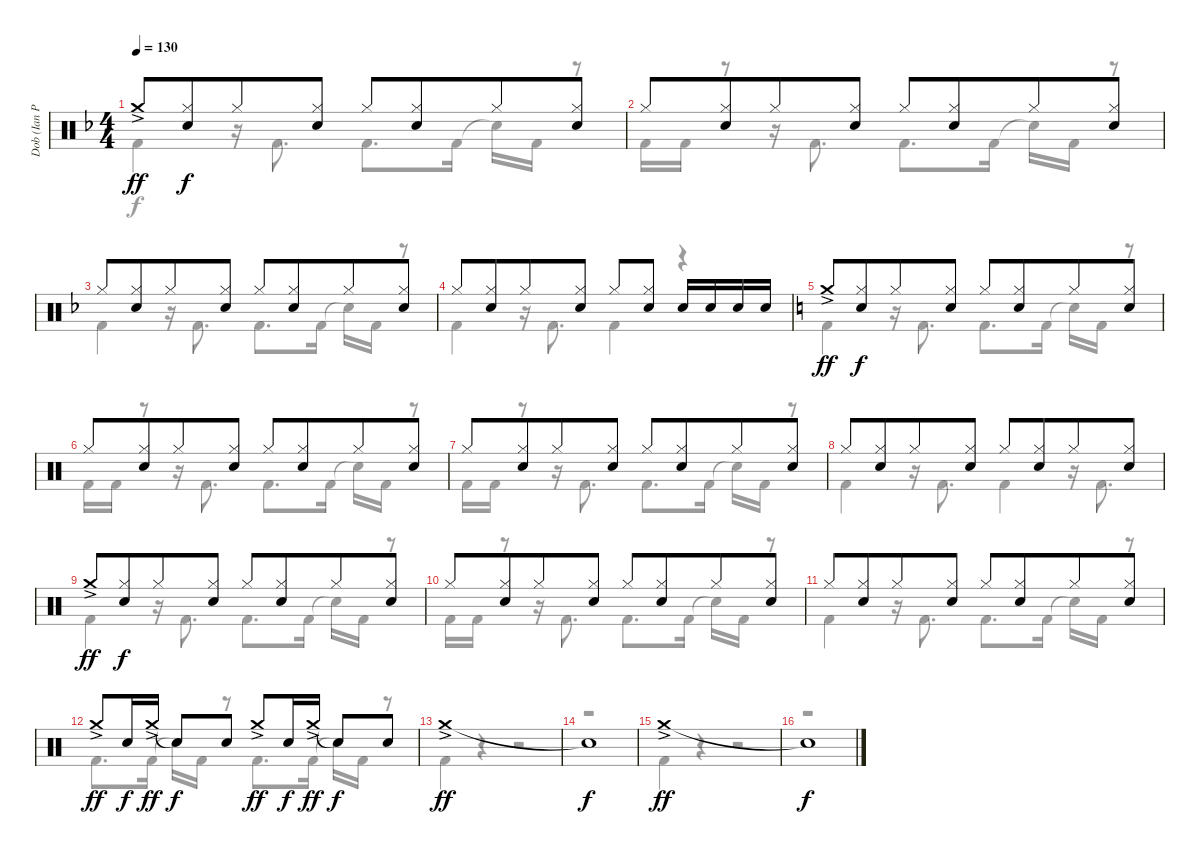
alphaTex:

\track ("Dob (Ian Paice)" "Dob (Ian P") {instrument percussion}
\staff {score}
\articulation defaults
\voice
\ts (4 4)
\tempo 130
\clef neutral
\ks f "Crash medium (hit)"{ac}.8{dy ff}
("Hi-Hat (closed)" "Electric Snare (hit)").8{dy f beam merge} "Hi-Hat (closed)".8 ("Hi-Hat (closed)" "Electric Snare (hit)").8 "Hi-Hat (closed)".8 ("Hi-Hat (closed)" "Electric Snare (hit)").8{beam merge} "Hi-Hat (closed)".8 ("Hi-Hat (closed)" "Electric Snare (hit)").8 |
"Hi-Hat (closed)".8 ("Hi-Hat (closed)" "Electric Snare (hit)").8{beam merge} "Hi-Hat (closed)".8 ("Hi-Hat (closed)" "Electric Snare (hit)").8 "Hi-Hat (closed)".8 ("Hi-Hat (closed)" "Electric Snare (hit)").8{beam merge} "Hi-Hat (closed)".8 ("Hi-Hat (closed)" "Electric Snare (hit)").8 |
"Hi-Hat (closed)".8 ("Hi-Hat (closed)" "Electric Snare (hit)").8{beam merge} "Hi-Hat (closed)".8 ("Hi-Hat (closed)" "Electric Snare (hit)").8 "Hi-Hat (closed)".8 ("Hi-Hat (closed)" "Electric Snare (hit)").8{beam merge} "Hi-Hat (closed)".8 ("Hi-Hat (closed)" "Electric Snare (hit)").8 |
"Hi-Hat (closed)".8 ("Hi-Hat (closed)" "Electric Snare (hit)").8{beam merge} "Hi-Hat (closed)".8 ("Hi-Hat (closed)" "Electric Snare (hit)").8 "Hi-Hat (closed)".8 ("Hi-Hat (closed)" "Electric Snare (hit)").8 "Electric Snare (hit)".16 "Electric Snare (hit)".16 "Electric Snare (hit)".16 "Electric Snare (hit)".16 |
\ks c "Crash medium (hit)"{ac}.8{dy ff}
("Hi-Hat (closed)" "Electric Snare (hit)").8{dy f beam merge} "Hi-Hat (closed)".8 ("Hi-Hat (closed)" "Electric Snare (hit)").8 "Hi-Hat (closed)".8 ("Hi-Hat (closed)" "Electric Snare (hit)").8{beam merge} "Hi-Hat (closed)".8 ("Hi-Hat (closed)" "Electric Snare (hit)").8 |
"Hi-Hat (closed)".8 ("Hi-Hat (closed)" "Electric Snare (hit)").8{beam merge} "Hi-Hat (closed)".8 ("Hi-Hat (closed)" "Electric Snare (hit)").8 "Hi-Hat (closed)".8 ("Hi-Hat (closed)" "Electric Snare (hit)").8{beam merge} "Hi-Hat (closed)".8 ("Hi-Hat (closed)" "Electric Snare (hit)").8 |
"Hi-Hat (closed)".8 ("Hi-Hat (closed)" "Electric Snare (hit)").8{beam merge} "Hi-Hat (closed)".8 ("Hi-Hat (closed)" "Electric Snare (hit)").8 "Hi-Hat (closed)".8 ("Hi-Hat (closed)" "Electric Snare (hit)").8{beam merge} "Hi-Hat (closed)".8 ("Hi-Hat (closed)" "Electric Snare (hit)").8 |
"Hi-Hat (closed)".8 ("Hi-Hat (closed)" "Electric Snare (hit)").8{beam merge} "Hi-Hat (closed)".8 ("Hi-Hat (closed)" "Electric Snare (hit)").8 "Hi-Hat (closed)".8 ("Hi-Hat (closed)" "Electric Snare (hit)").8{beam merge} "Hi-Hat (closed)".8 ("Hi-Hat (closed)" "Electric Snare (hit)").8 |
"Crash medium (hit)"{ac}.8{dy ff} ("Hi-Hat (closed)" "Electric Snare (hit)").8{dy f beam merge} "Hi-Hat (closed)".8 ("Hi-Hat (closed)" "Electric Snare (hit)").8 "Hi-Hat (closed)".8 ("Hi-Hat (closed)" "Electric Snare (hit)").8{beam merge} "Hi-Hat (closed)".8 ("Hi-Hat (closed)" "Electric Snare (hit)").8 |
"Hi-Hat (closed)".8 ("Hi-Hat (closed)" "Electric Snare (hit)").8{beam merge} "Hi-Hat (closed)".8 ("Hi-Hat (closed)" "Electric Snare (hit)").8 "Hi-Hat (closed)".8 ("Hi-Hat (closed)" "Electric Snare (hit)").8{beam merge} "Hi-Hat (closed)".8 ("Hi-Hat (closed)" "Electric Snare (hit)").8 |
"Hi-Hat (closed)".8 ("Hi-Hat (closed)" "Electric Snare (hit)").8{beam merge} "Hi-Hat (closed)".8 ("Hi-Hat (closed)" "Electric Snare (hit)").8 "Hi-Hat (closed)".8 ("Hi-Hat (closed)" "Electric Snare (hit)").8{beam merge} "Hi-Hat (closed)".8 ("Hi-Hat (closed)" "Electric Snare (hit)").8 |
"Crash medium (hit)"{ac}.8{dy ff} "Electric Snare (hit)".16{dy f} "Crash medium (hit)"{ac}.16{dy ff} "Snare (hit)"{t}.8{dy f} "Electric Snare (hit)".8 "Crash medium (hit)"{ac}.8{dy ff} "Electric Snare (hit)".16{dy f} "Crash medium (hit)"{ac}.16{dy ff} "Snare (hit)"{t}.8{dy f} "Electric Snare (hit)".8 |
"Crash medium (hit)"{ac}.1{dy ff} |
"Snare (hit)"{t}.1{dy f} |
"Crash medium (hit)"{ac}.1{dy ff} |
"Snare (hit)"{t}.1{dy f}
\voice
\clef neutral
\ottava regular
\simile none
\ks f "Kick (hit) 2".4{dy f}
r.16 "Kick (hit) 2".8{d} "Kick (hit) 2".8{d} "Kick (hit) 2".16 "Snare (hit)"{t}.16 "Kick (hit) 2".16 r.8 |
"Kick (hit) 2".16 "Kick (hit) 2".16 r.8 r.16 "Kick (hit) 2".8{d} "Kick (hit) 2".8{d} "Kick (hit) 2".16 "Snare (hit)"{t}.16 "Kick (hit) 2".16 r.8 |
"Kick (hit) 2".4 r.16 "Kick (hit) 2".8{d} "Kick (hit) 2".8{d} "Kick (hit) 2".16 "Snare (hit)"{t}.16 "Kick (hit) 2".16 r.8 |
"Kick (hit) 2".4 r.16 "Kick (hit) 2".8{d} "Kick (hit) 2".4 r.4 |
\ks c "Kick (hit) 2".4
r.16 "Kick (hit) 2".8{d} "Kick (hit) 2".8{d} "Kick (hit) 2".16 "Snare (hit)"{t}.16 "Kick (hit) 2".16 r.8 |
"Kick (hit) 2".16 "Kick (hit) 2".16 r.8 r.16 "Kick (hit) 2".8{d} "Kick (hit) 2".8{d} "Kick (hit) 2".16 "Snare (hit)"{t}.16 "Kick (hit) 2".16 r.8 |
"Kick (hit) 2".16 "Kick (hit) 2".16 r.8 r.16 "Kick (hit) 2".8{d} "Kick (hit) 2".8{d} "Kick (hit) 2".16 "Snare (hit)"{t}.16 "Kick (hit) 2".16 r.8 |
"Kick (hit) 2".4 r.16 "Kick (hit) 2".8{d} "Kick (hit) 2".4 r.16 "Kick (hit) 2".8{d} |
"Kick (hit) 2".4 r.16 "Kick (hit) 2".8{d} "Kick (hit) 2".8{d} "Kick (hit) 2".16 "Snare (hit)"{t}.16 "Kick (hit) 2".16 r.8 |
"Kick (hit) 2".16 "Kick (hit) 2".16 r.8 r.16 "Kick (hit) 2".8{d} "Kick (hit) 2".8{d} "Kick (hit) 2".16 "Snare (hit)"{t}.16 "Kick (hit) 2".16 r.8 |
"Kick (hit) 2".4 r.16 "Kick (hit) 2".8{d} "Kick (hit) 2".8{d} "Kick (hit) 2".16 "Snare (hit)"{t}.16 "Kick (hit) 2".16 r.8 |
"Kick (hit) 2".8{d} "Kick (hit) 2".16 "Snare (hit)"{t}.16 "Kick (hit) 2".16 r.8 "Kick (hit) 2".8{d} "Kick (hit) 2".16 "Snare (hit)"{t}.16 "Kick (hit) 2".16 r.8 |
"Kick (hit) 2".4 r.4 r.2 |
r.1 |
"Kick (hit) 2".4 r.4 r.2 |
r.1
